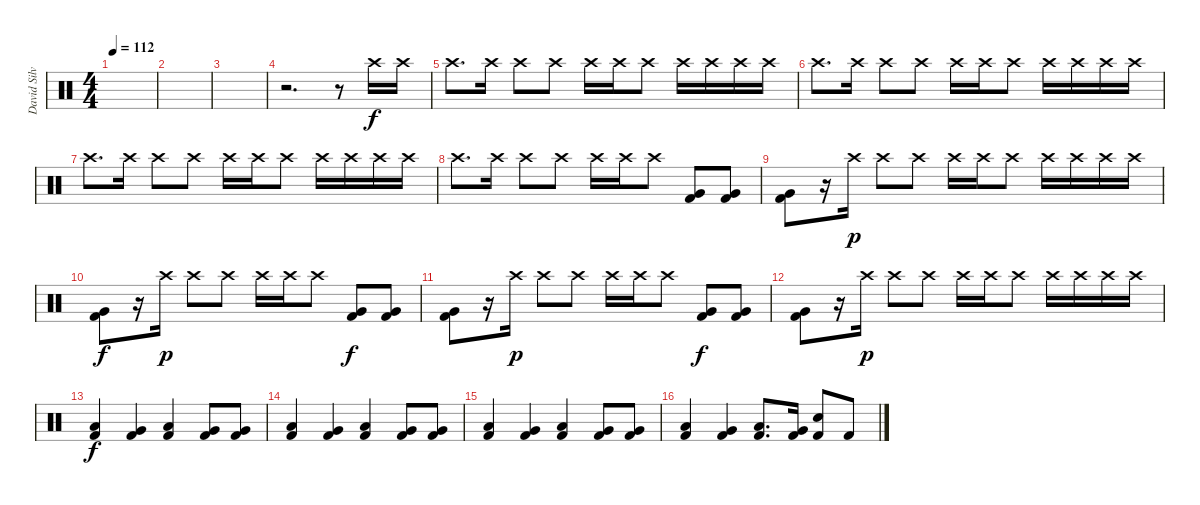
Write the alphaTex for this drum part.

\track ("David Silveria" "David Silv") {instrument percussion}
\staff {score}
\articulation defaults
\ts (4 4)
\tempo 112
\clef neutral
\ks c
|
|
|
r.2{d} r.8 "Crash high (hit)".16 "Crash high (hit)".16 |
"Crash high (hit)".8{d} "Crash high (hit)".16 "Crash high (hit)".8 "Crash high (hit)".8 "Crash high (hit)".16 "Crash high (hit)".16 "Crash high (hit)".8 "Crash high (hit)".16 "Crash high (hit)".16 "Crash high (hit)".16 "Crash high (hit)".16 |
"Crash high (hit)".8{d} "Crash high (hit)".16 "Crash high (hit)".8 "Crash high (hit)".8 "Crash high (hit)".16 "Crash high (hit)".16 "Crash high (hit)".8 "Crash high (hit)".16 "Crash high (hit)".16 "Crash high (hit)".16 "Crash high (hit)".16 |
"Crash high (hit)".8{d} "Crash high (hit)".16 "Crash high (hit)".8 "Crash high (hit)".8 "Crash high (hit)".16 "Crash high (hit)".16 "Crash high (hit)".8 "Crash high (hit)".16 "Crash high (hit)".16 "Crash high (hit)".16 "Crash high (hit)".16 |
"Crash high (hit)".8{d} "Crash high (hit)".16 "Crash high (hit)".8 "Crash high (hit)".8 "Crash high (hit)".16 "Crash high (hit)".16 "Crash high (hit)".8 ("Very Low Tom (hit)" "Kick (hit) 2").8{dy f} ("Very Low Tom (hit)" "Kick (hit) 2").8 |
("Very Low Tom (hit)" "Kick (hit) 2").8 r.16 "Crash high (hit)".16{dy p} "Crash high (hit)".8 "Crash high (hit)".8 "Crash high (hit)".16 "Crash high (hit)".16 "Crash high (hit)".8 "Crash high (hit)".16 "Crash high (hit)".16 "Crash high (hit)".16 "Crash high (hit)".16 |
("Very Low Tom (hit)" "Kick (hit) 2").8{dy f} r.16 "Crash high (hit)".16{dy p} "Crash high (hit)".8 "Crash high (hit)".8 "Crash high (hit)".16 "Crash high (hit)".16 "Crash high (hit)".8 ("Very Low Tom (hit)" "Kick (hit) 2").8{dy f} ("Very Low Tom (hit)" "Kick (hit) 2").8 |
("Very Low Tom (hit)" "Kick (hit) 2").8 r.16 "Crash high (hit)".16{dy p} "Crash high (hit)".8 "Crash high (hit)".8 "Crash high (hit)".16 "Crash high (hit)".16 "Crash high (hit)".8 ("Very Low Tom (hit)" "Kick (hit) 2").8{dy f} ("Very Low Tom (hit)" "Kick (hit) 2").8 |
("Very Low Tom (hit)" "Kick (hit) 2").8 r.16 "Crash high (hit)".16{dy p} "Crash high (hit)".8 "Crash high (hit)".8 "Crash high (hit)".16 "Crash high (hit)".16 "Crash high (hit)".8 "Crash high (hit)".16 "Crash high (hit)".16 "Crash high (hit)".16 "Crash high (hit)".16 |
("Low Tom (hit)" "Kick (hit) 2").4{dy f} ("Very Low Tom (hit)" "Kick (hit) 2").4 ("Low Floor Tom (hit)" "Kick (hit) 2").4 ("Very Low Tom (hit)" "Kick (hit) 2").8 ("Very Low Tom (hit)" "Kick (hit) 2").8 |
("Low Tom (hit)" "Kick (hit) 2").4 ("Very Low Tom (hit)" "Kick (hit) 2").4 ("Low Floor Tom (hit)" "Kick (hit) 2").4 ("Very Low Tom (hit)" "Kick (hit) 2").8 ("Very Low Tom (hit)" "Kick (hit) 2").8 |
("Low Tom (hit)" "Kick (hit) 2").4 ("Very Low Tom (hit)" "Kick (hit) 2").4 ("Low Floor Tom (hit)" "Kick (hit) 2").4 ("Very Low Tom (hit)" "Kick (hit) 2").8 ("Very Low Tom (hit)" "Kick (hit) 2").8 |
("Low Tom (hit)" "Kick (hit) 2").4 ("Very Low Tom (hit)" "Kick (hit) 2").4 ("Low Floor Tom (hit)" "Kick (hit) 2").8{d} ("Very Low Tom (hit)" "Kick (hit) 2").16 ("Electric Snare (hit)" "Kick (hit) 2").8 "Kick (hit) 2".8
